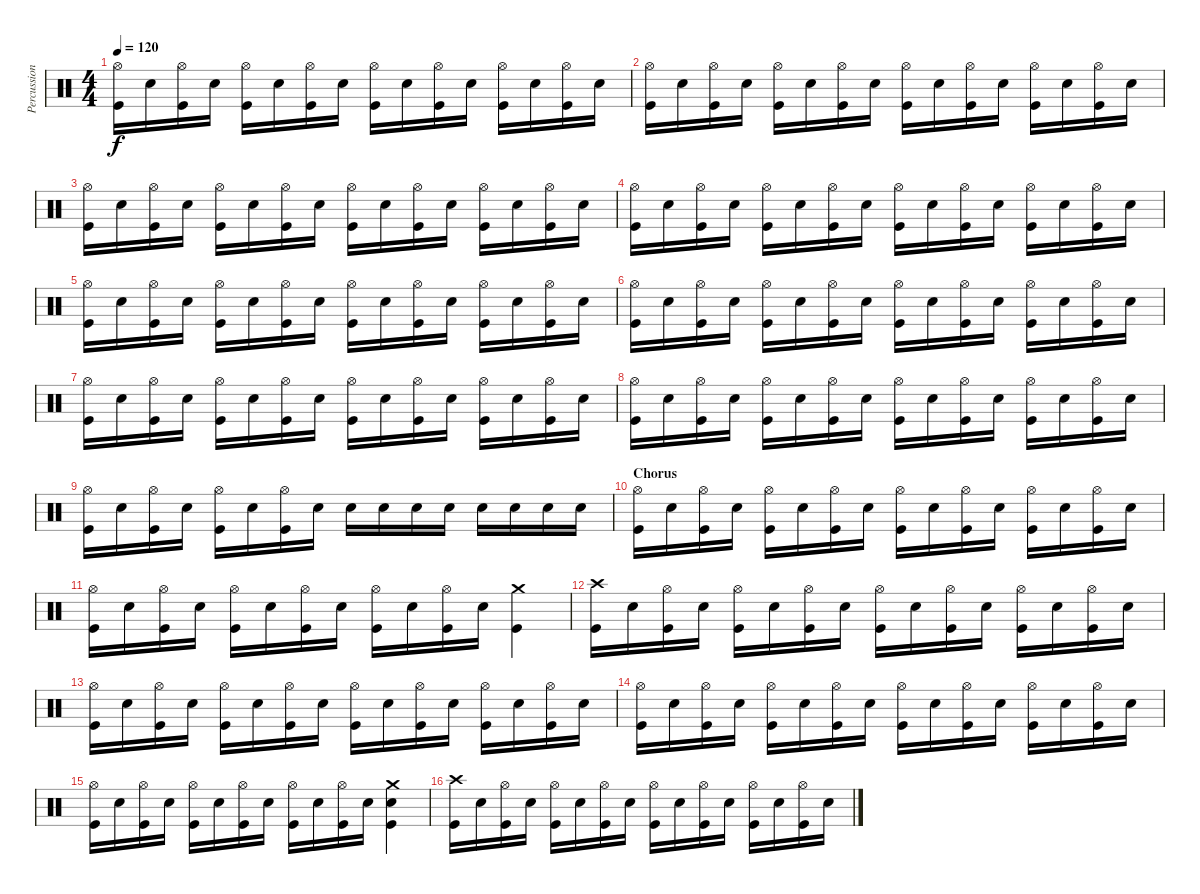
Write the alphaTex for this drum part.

\track ("Percussioni" "Percussion") {instrument percussion}
\staff {score}
\articulation defaults
\ts (4 4)
\tempo 120
\clef neutral
\ks c
("Hi-Hat (open)" "Kick (hit)").16{dy f} "Snare (hit) 2".16 ("Hi-Hat (open)" "Kick (hit)").16 "Snare (hit) 2".16 ("Hi-Hat (open)" "Kick (hit)").16 "Snare (hit) 2".16 ("Hi-Hat (open)" "Kick (hit)").16 "Snare (hit) 2".16 ("Hi-Hat (open)" "Kick (hit)").16 "Snare (hit) 2".16 ("Hi-Hat (open)" "Kick (hit)").16 "Snare (hit) 2".16 ("Hi-Hat (open)" "Kick (hit)").16 "Snare (hit) 2".16 ("Hi-Hat (open)" "Kick (hit)").16 "Snare (hit) 2".16 |
("Hi-Hat (open)" "Kick (hit)").16 "Snare (hit) 2".16 ("Hi-Hat (open)" "Kick (hit)").16 "Snare (hit) 2".16 ("Hi-Hat (open)" "Kick (hit)").16 "Snare (hit) 2".16 ("Hi-Hat (open)" "Kick (hit)").16 "Snare (hit) 2".16 ("Hi-Hat (open)" "Kick (hit)").16 "Snare (hit) 2".16 ("Hi-Hat (open)" "Kick (hit)").16 "Snare (hit) 2".16 ("Hi-Hat (open)" "Kick (hit)").16 "Snare (hit) 2".16 ("Hi-Hat (open)" "Kick (hit)").16 "Snare (hit) 2".16 |
("Hi-Hat (open)" "Kick (hit)").16 "Snare (hit) 2".16 ("Hi-Hat (open)" "Kick (hit)").16 "Snare (hit) 2".16 ("Hi-Hat (open)" "Kick (hit)").16 "Snare (hit) 2".16 ("Hi-Hat (open)" "Kick (hit)").16 "Snare (hit) 2".16 ("Hi-Hat (open)" "Kick (hit)").16 "Snare (hit) 2".16 ("Hi-Hat (open)" "Kick (hit)").16 "Snare (hit) 2".16 ("Hi-Hat (open)" "Kick (hit)").16 "Snare (hit) 2".16 ("Hi-Hat (open)" "Kick (hit)").16 "Snare (hit) 2".16 |
("Hi-Hat (open)" "Kick (hit)").16 "Snare (hit) 2".16 ("Hi-Hat (open)" "Kick (hit)").16 "Snare (hit) 2".16 ("Hi-Hat (open)" "Kick (hit)").16 "Snare (hit) 2".16 ("Hi-Hat (open)" "Kick (hit)").16 "Snare (hit) 2".16 ("Hi-Hat (open)" "Kick (hit)").16 "Snare (hit) 2".16 ("Hi-Hat (open)" "Kick (hit)").16 "Snare (hit) 2".16 ("Hi-Hat (open)" "Kick (hit)").16 "Snare (hit) 2".16 ("Hi-Hat (open)" "Kick (hit)").16 "Snare (hit) 2".16 |
("Hi-Hat (open)" "Kick (hit)").16 "Snare (hit) 2".16 ("Hi-Hat (open)" "Kick (hit)").16 "Snare (hit) 2".16 ("Hi-Hat (open)" "Kick (hit)").16 "Snare (hit) 2".16 ("Hi-Hat (open)" "Kick (hit)").16 "Snare (hit) 2".16 ("Hi-Hat (open)" "Kick (hit)").16 "Snare (hit) 2".16 ("Hi-Hat (open)" "Kick (hit)").16 "Snare (hit) 2".16 ("Hi-Hat (open)" "Kick (hit)").16 "Snare (hit) 2".16 ("Hi-Hat (open)" "Kick (hit)").16 "Snare (hit) 2".16 |
("Hi-Hat (open)" "Kick (hit)").16 "Snare (hit) 2".16 ("Hi-Hat (open)" "Kick (hit)").16 "Snare (hit) 2".16 ("Hi-Hat (open)" "Kick (hit)").16 "Snare (hit) 2".16 ("Hi-Hat (open)" "Kick (hit)").16 "Snare (hit) 2".16 ("Hi-Hat (open)" "Kick (hit)").16 "Snare (hit) 2".16 ("Hi-Hat (open)" "Kick (hit)").16 "Snare (hit) 2".16 ("Hi-Hat (open)" "Kick (hit)").16 "Snare (hit) 2".16 ("Hi-Hat (open)" "Kick (hit)").16 "Snare (hit) 2".16 |
("Hi-Hat (open)" "Kick (hit)").16 "Snare (hit) 2".16 ("Hi-Hat (open)" "Kick (hit)").16 "Snare (hit) 2".16 ("Hi-Hat (open)" "Kick (hit)").16 "Snare (hit) 2".16 ("Hi-Hat (open)" "Kick (hit)").16 "Snare (hit) 2".16 ("Hi-Hat (open)" "Kick (hit)").16 "Snare (hit) 2".16 ("Hi-Hat (open)" "Kick (hit)").16 "Snare (hit) 2".16 ("Hi-Hat (open)" "Kick (hit)").16 "Snare (hit) 2".16 ("Hi-Hat (open)" "Kick (hit)").16 "Snare (hit) 2".16 |
("Hi-Hat (open)" "Kick (hit)").16 "Snare (hit) 2".16 ("Hi-Hat (open)" "Kick (hit)").16 "Snare (hit) 2".16 ("Hi-Hat (open)" "Kick (hit)").16 "Snare (hit) 2".16 ("Hi-Hat (open)" "Kick (hit)").16 "Snare (hit) 2".16 ("Hi-Hat (open)" "Kick (hit)").16 "Snare (hit) 2".16 ("Hi-Hat (open)" "Kick (hit)").16 "Snare (hit) 2".16 ("Hi-Hat (open)" "Kick (hit)").16 "Snare (hit) 2".16 ("Hi-Hat (open)" "Kick (hit)").16 "Snare (hit) 2".16 |
("Hi-Hat (open)" "Kick (hit)").16 "Snare (hit) 2".16 ("Hi-Hat (open)" "Kick (hit)").16 "Snare (hit) 2".16 ("Hi-Hat (open)" "Kick (hit)").16 "Snare (hit) 2".16 ("Hi-Hat (open)" "Kick (hit)").16 "Snare (hit) 2".16 "Snare (hit) 2".16 "Snare (hit) 2".16 "Snare (hit) 2".16 "Snare (hit) 2".16 "Snare (hit) 2".16 "Snare (hit) 2".16 "Snare (hit) 2".16 "Snare (hit) 2".16 |
\section ("" "Chorus")
("Hi-Hat (open)" "Kick (hit)").16 "Snare (hit) 2".16 ("Hi-Hat (open)" "Kick (hit)").16 "Snare (hit) 2".16 ("Hi-Hat (open)" "Kick (hit)").16 "Snare (hit) 2".16 ("Hi-Hat (open)" "Kick (hit)").16 "Snare (hit) 2".16 ("Hi-Hat (open)" "Kick (hit)").16 "Snare (hit) 2".16 ("Hi-Hat (open)" "Kick (hit)").16 "Snare (hit) 2".16 ("Hi-Hat (open)" "Kick (hit)").16 "Snare (hit) 2".16 ("Hi-Hat (open)" "Kick (hit)").16 "Snare (hit) 2".16 |
("Hi-Hat (open)" "Kick (hit)").16 "Snare (hit) 2".16 ("Hi-Hat (open)" "Kick (hit)").16 "Snare (hit) 2".16 ("Hi-Hat (open)" "Kick (hit)").16 "Snare (hit) 2".16 ("Hi-Hat (open)" "Kick (hit)").16 "Snare (hit) 2".16 ("Hi-Hat (open)" "Kick (hit)").16 "Snare (hit) 2".16 ("Hi-Hat (open)" "Kick (hit)").16 "Snare (hit) 2".16 ("Crash medium (hit)" "Kick (hit)").4 |
("Crash high (hit)" "Kick (hit)").16 "Snare (hit) 2".16 ("Hi-Hat (open)" "Kick (hit)").16 "Snare (hit) 2".16 ("Hi-Hat (open)" "Kick (hit)").16 "Snare (hit) 2".16 ("Hi-Hat (open)" "Kick (hit)").16 "Snare (hit) 2".16 ("Hi-Hat (open)" "Kick (hit)").16 "Snare (hit) 2".16 ("Hi-Hat (open)" "Kick (hit)").16 "Snare (hit) 2".16 ("Hi-Hat (open)" "Kick (hit)").16 "Snare (hit) 2".16 ("Hi-Hat (open)" "Kick (hit)").16 "Snare (hit) 2".16 |
("Hi-Hat (open)" "Kick (hit)").16 "Snare (hit) 2".16 ("Hi-Hat (open)" "Kick (hit)").16 "Snare (hit) 2".16 ("Hi-Hat (open)" "Kick (hit)").16 "Snare (hit) 2".16 ("Hi-Hat (open)" "Kick (hit)").16 "Snare (hit) 2".16 ("Hi-Hat (open)" "Kick (hit)").16 "Snare (hit) 2".16 ("Hi-Hat (open)" "Kick (hit)").16 "Snare (hit) 2".16 ("Hi-Hat (open)" "Kick (hit)").16 "Snare (hit) 2".16 ("Hi-Hat (open)" "Kick (hit)").16 "Snare (hit) 2".16 |
("Hi-Hat (open)" "Kick (hit)").16 "Snare (hit) 2".16 ("Hi-Hat (open)" "Kick (hit)").16 "Snare (hit) 2".16 ("Hi-Hat (open)" "Kick (hit)").16 "Snare (hit) 2".16 ("Hi-Hat (open)" "Kick (hit)").16 "Snare (hit) 2".16 ("Hi-Hat (open)" "Kick (hit)").16 "Snare (hit) 2".16 ("Hi-Hat (open)" "Kick (hit)").16 "Snare (hit) 2".16 ("Hi-Hat (open)" "Kick (hit)").16 "Snare (hit) 2".16 ("Hi-Hat (open)" "Kick (hit)").16 "Snare (hit) 2".16 |
("Hi-Hat (open)" "Kick (hit)").16 "Snare (hit) 2".16 ("Hi-Hat (open)" "Kick (hit)").16 "Snare (hit) 2".16 ("Hi-Hat (open)" "Kick (hit)").16 "Snare (hit) 2".16 ("Hi-Hat (open)" "Kick (hit)").16 "Snare (hit) 2".16 ("Hi-Hat (open)" "Kick (hit)").16 "Snare (hit) 2".16 ("Hi-Hat (open)" "Kick (hit)").16 "Snare (hit) 2".16 ("Crash medium (hit)" "Snare (hit) 2" "Kick (hit)").4 |
("Crash high (hit)" "Kick (hit)").16 "Snare (hit) 2".16 ("Hi-Hat (open)" "Kick (hit)").16 "Snare (hit) 2".16 ("Hi-Hat (open)" "Kick (hit)").16 "Snare (hit) 2".16 ("Hi-Hat (open)" "Kick (hit)").16 "Snare (hit) 2".16 ("Hi-Hat (open)" "Kick (hit)").16 "Snare (hit) 2".16 ("Hi-Hat (open)" "Kick (hit)").16 "Snare (hit) 2".16 ("Hi-Hat (open)" "Kick (hit)").16 "Snare (hit) 2".16 ("Hi-Hat (open)" "Kick (hit)").16 "Snare (hit) 2".16
